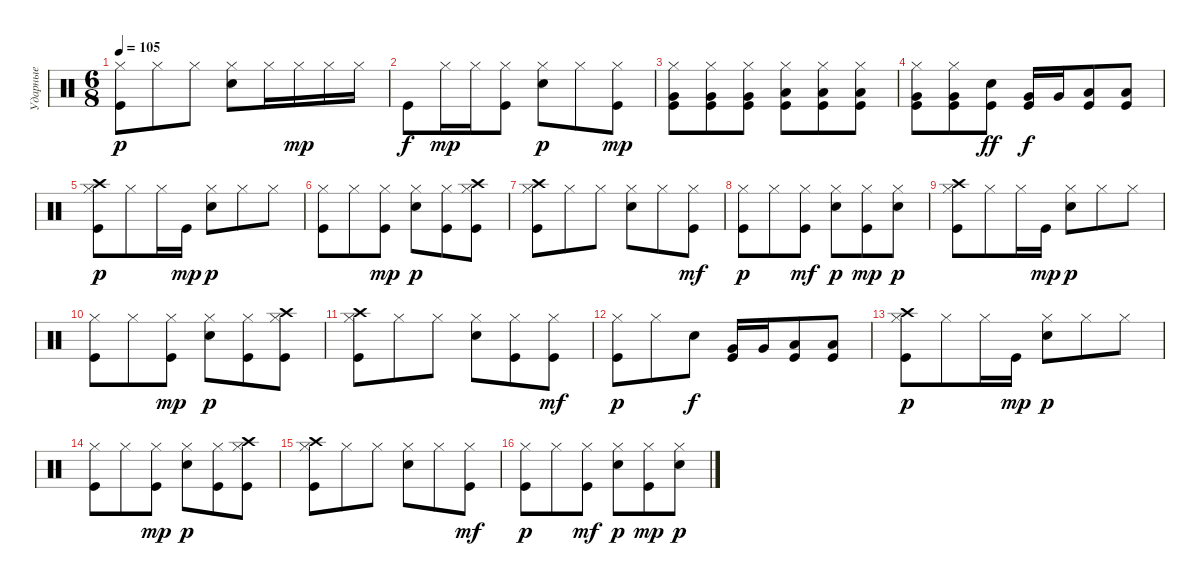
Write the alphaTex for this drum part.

\track ("Ударные" "Ударные") {instrument percussion}
\staff {score}
\articulation defaults
\ts (6 8)
\tempo 105
\clef neutral
\ks c
("Hi-Hat (closed)" "Kick (hit)").8{dy p} "Hi-Hat (closed)".8 "Hi-Hat (closed)".8 ("Hi-Hat (closed)" "Electric Snare (hit)").8 "Hi-Hat (closed)".16 "Hi-Hat (closed)".16{dy mp} "Hi-Hat (closed)".16 "Hi-Hat (closed)".16 |
"Kick (hit)".8{dy f} "Hi-Hat (closed)".16{dy mp} "Hi-Hat (closed)".16 ("Kick (hit)" "Hi-Hat (closed)").8 ("Hi-Hat (closed)" "Electric Snare (hit)").8{dy p} "Hi-Hat (closed)".8 ("Hi-Hat (closed)" "Kick (hit)").8{dy mp} |
("Hi-Hat (closed)" "Kick (hit)" "Very Low Tom (hit)").8 ("Hi-Hat (closed)" "Kick (hit)" "Very Low Tom (hit)").8 ("Hi-Hat (closed)" "Kick (hit)" "Very Low Tom (hit)").8 ("Hi-Hat (closed)" "Kick (hit)" "Low Floor Tom (hit)").8 ("Hi-Hat (closed)" "Kick (hit)" "Low Floor Tom (hit)").8 ("Hi-Hat (closed)" "Kick (hit)" "Low Floor Tom (hit)").8 |
("Hi-Hat (closed)" "Very Low Tom (hit)" "Kick (hit)").8 ("Hi-Hat (closed)" "Very Low Tom (hit)" "Kick (hit)").8 ("Electric Snare (hit)" "Kick (hit)").8{dy ff} ("Kick (hit)" "Very Low Tom (hit)").16{dy f} "Very Low Tom (hit)".16 ("Kick (hit)" "Low Floor Tom (hit)").8 ("Kick (hit)" "Low Floor Tom (hit)").8 |
("Crash high (hit)" "Hi-Hat (closed)" "Kick (hit)").8{dy p} "Hi-Hat (closed)".8 "Hi-Hat (closed)".16 "Kick (hit)".16{dy mp} ("Hi-Hat (closed)" "Electric Snare (hit)").8{dy p} "Hi-Hat (closed)".8 "Hi-Hat (closed)".8 |
("Hi-Hat (closed)" "Kick (hit)").8 "Hi-Hat (closed)".8 ("Hi-Hat (closed)" "Kick (hit)").8{dy mp} ("Hi-Hat (closed)" "Electric Snare (hit)").8{dy p} ("Hi-Hat (closed)" "Kick (hit)").8 ("Crash high (hit)" "Hi-Hat (closed)" "Kick (hit)").8 |
("Crash high (hit)" "Hi-Hat (closed)" "Kick (hit)").8 "Hi-Hat (closed)".8 "Hi-Hat (closed)".8 ("Hi-Hat (closed)" "Electric Snare (hit)").8 "Hi-Hat (closed)".8 ("Hi-Hat (closed)" "Kick (hit)").8{dy mf} |
("Hi-Hat (closed)" "Kick (hit)").8{dy p} "Hi-Hat (closed)".8 ("Hi-Hat (closed)" "Kick (hit)").8{dy mf} ("Hi-Hat (closed)" "Electric Snare (hit)").8{dy p} ("Hi-Hat (closed)" "Kick (hit)").8{dy mp} ("Hi-Hat (closed)" "Electric Snare (hit)").8{dy p} |
("Crash high (hit)" "Hi-Hat (closed)" "Kick (hit)").8 "Hi-Hat (closed)".8 "Hi-Hat (closed)".16 "Kick (hit)".16{dy mp} ("Hi-Hat (closed)" "Electric Snare (hit)").8{dy p} "Hi-Hat (closed)".8 "Hi-Hat (closed)".8 |
("Hi-Hat (closed)" "Kick (hit)").8 "Hi-Hat (closed)".8 ("Hi-Hat (closed)" "Kick (hit)").8{dy mp} ("Hi-Hat (closed)" "Electric Snare (hit)").8{dy p} ("Hi-Hat (closed)" "Kick (hit)").8 ("Crash high (hit)" "Hi-Hat (closed)" "Kick (hit)").8 |
("Crash high (hit)" "Hi-Hat (closed)" "Kick (hit)").8 "Hi-Hat (closed)".8 "Hi-Hat (closed)".8 ("Hi-Hat (closed)" "Electric Snare (hit)").8 ("Hi-Hat (closed)" "Kick (hit)").8 ("Hi-Hat (closed)" "Kick (hit)").8{dy mf} |
("Hi-Hat (closed)" "Kick (hit)").8{dy p} "Hi-Hat (closed)".8 "Electric Snare (hit)".8{dy f} ("Kick (hit)" "Very Low Tom (hit)").16 "Very Low Tom (hit)".16 ("Kick (hit)" "Low Floor Tom (hit)").8 ("Kick (hit)" "Low Floor Tom (hit)").8 |
("Crash high (hit)" "Hi-Hat (closed)" "Kick (hit)").8{dy p} "Hi-Hat (closed)".8 "Hi-Hat (closed)".16 "Kick (hit)".16{dy mp} ("Hi-Hat (closed)" "Electric Snare (hit)").8{dy p} "Hi-Hat (closed)".8 "Hi-Hat (closed)".8 |
("Hi-Hat (closed)" "Kick (hit)").8 "Hi-Hat (closed)".8 ("Hi-Hat (closed)" "Kick (hit)").8{dy mp} ("Hi-Hat (closed)" "Electric Snare (hit)").8{dy p} ("Hi-Hat (closed)" "Kick (hit)").8 ("Crash high (hit)" "Hi-Hat (closed)" "Kick (hit)").8 |
("Crash high (hit)" "Hi-Hat (closed)" "Kick (hit)").8 "Hi-Hat (closed)".8 "Hi-Hat (closed)".8 ("Hi-Hat (closed)" "Electric Snare (hit)").8 "Hi-Hat (closed)".8 ("Hi-Hat (closed)" "Kick (hit)").8{dy mf} |
("Hi-Hat (closed)" "Kick (hit)").8{dy p} "Hi-Hat (closed)".8 ("Hi-Hat (closed)" "Kick (hit)").8{dy mf} ("Hi-Hat (closed)" "Electric Snare (hit)").8{dy p} ("Hi-Hat (closed)" "Kick (hit)").8{dy mp} ("Hi-Hat (closed)" "Electric Snare (hit)").8{dy p}
